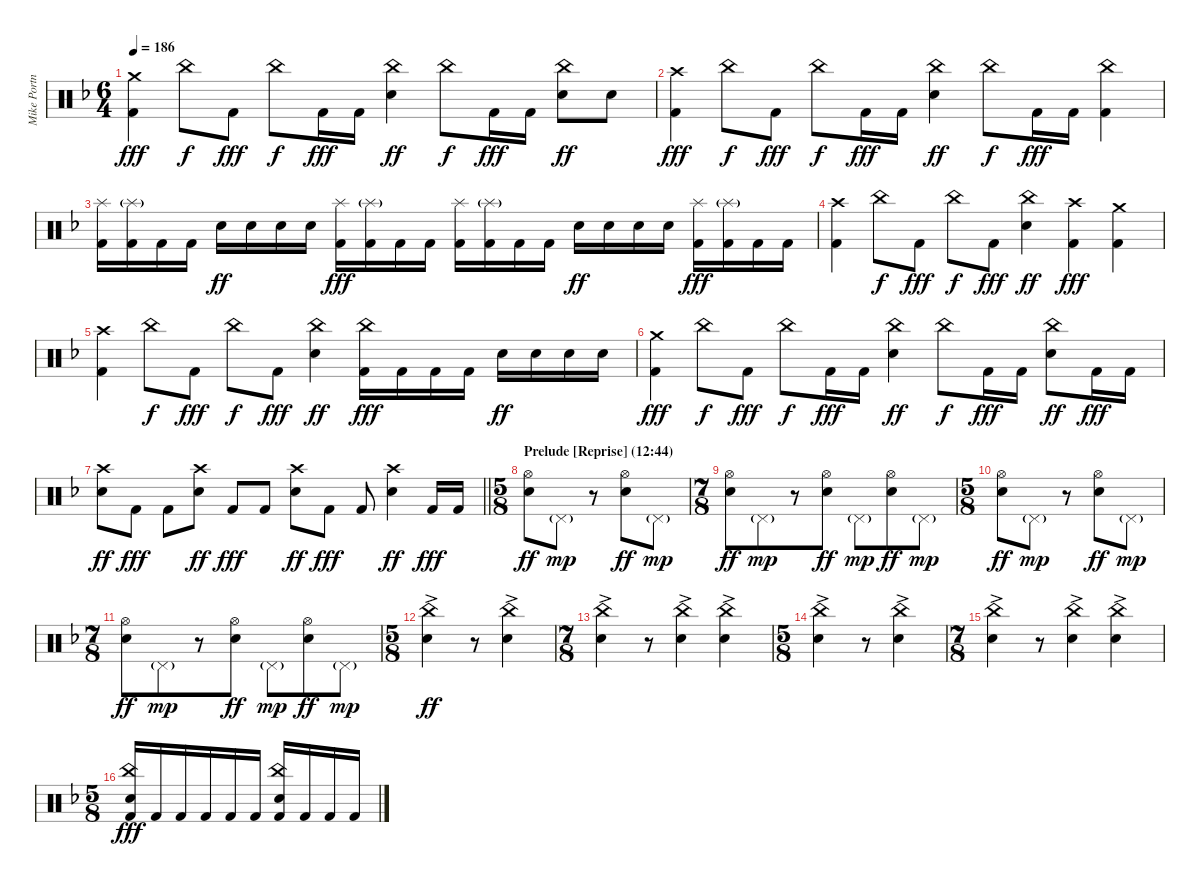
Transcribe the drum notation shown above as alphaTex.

\track ("Mike Portnoy Drums" "Mike Portn") {instrument percussion}
\staff {score}
\articulation defaults
\ts (6 4)
\tempo 186
\clef neutral
\ks dminor
("Crash medium (hit)" "Kick (hit) 2").4{dy fff} "China (hit)".8{dy f} "Kick (hit) 2".8{dy fff} "China (hit)".8{dy f} "Kick (hit) 2".16{dy fff} "Kick (hit) 2".16 ("China (hit)" "Electric Snare (hit)").4{dy ff} "China (hit)".8{dy f} "Kick (hit) 2".16{dy fff} "Kick (hit) 2".16 ("China (hit)" "Electric Snare (hit)").8{dy ff} "Electric Snare (hit)".8 |
("Crash high (hit)" "Kick (hit) 2").4{dy fff} "China (hit)".8{dy f} "Kick (hit) 2".8{dy fff} "China (hit)".8{dy f} "Kick (hit) 2".16{dy fff} "Kick (hit) 2".16 ("China (hit)" "Electric Snare (hit)").4{dy ff} "China (hit)".8{dy f} "Kick (hit) 2".16{dy fff} "Kick (hit) 2".16 ("China (hit)" "Kick (hit) 2").4 |
("Splash (hit)" "Kick (hit) 2").16 ("Splash (hit)"{g} "Kick (hit) 2").16 "Kick (hit) 2".16 "Kick (hit) 2".16 "Electric Snare (hit)".16{dy ff} "Electric Snare (hit)".16 "Electric Snare (hit)".16 "Electric Snare (hit)".16 ("Splash (hit)" "Kick (hit) 2").16{dy fff} ("Splash (hit)"{g} "Kick (hit) 2").16 "Kick (hit) 2".16 "Kick (hit) 2".16 ("Splash (hit)" "Kick (hit) 2").16 ("Splash (hit)"{g} "Kick (hit) 2").16 "Kick (hit) 2".16 "Kick (hit) 2".16 "Electric Snare (hit)".16{dy ff} "Electric Snare (hit)".16 "Electric Snare (hit)".16 "Electric Snare (hit)".16 ("Splash (hit)" "Kick (hit) 2").16{dy fff} ("Splash (hit)"{g} "Kick (hit) 2").16 "Kick (hit) 2".16 "Kick (hit) 2".16 |
("Crash high (hit)" "Kick (hit) 2").4 "China (hit)".8{dy f} "Kick (hit) 2".8{dy fff} "China (hit)".8{dy f} "Kick (hit) 2".8{dy fff} ("China (hit)" "Electric Snare (hit)").4{dy ff} ("Crash high (hit)" "Kick (hit) 2").4{dy fff} ("Crash medium (hit)" "Kick (hit) 2").4 |
("Crash high (hit)" "Kick (hit) 2").4 "China (hit)".8{dy f} "Kick (hit) 2".8{dy fff} "China (hit)".8{dy f} "Kick (hit) 2".8{dy fff} ("China (hit)" "Electric Snare (hit)").4{dy ff} ("China (hit)" "Kick (hit) 2").16{dy fff} "Kick (hit) 2".16 "Kick (hit) 2".16 "Kick (hit) 2".16 "Electric Snare (hit)".16{dy ff} "Electric Snare (hit)".16 "Electric Snare (hit)".16 "Electric Snare (hit)".16 |
("Crash medium (hit)" "Kick (hit) 2").4{dy fff} "China (hit)".8{dy f} "Kick (hit) 2".8{dy fff} "China (hit)".8{dy f} "Kick (hit) 2".16{dy fff} "Kick (hit) 2".16 ("China (hit)" "Electric Snare (hit)").4{dy ff} "China (hit)".8{dy f} "Kick (hit) 2".16{dy fff} "Kick (hit) 2".16 ("China (hit)" "Electric Snare (hit)").8{dy ff} "Kick (hit) 2".16{dy fff} "Kick (hit) 2".16 |
\barLineRight lightlight
("Crash high (hit)" "Electric Snare (hit)").8{dy ff} "Kick (hit) 2".8{dy fff} "Kick (hit) 2".8 ("Crash high (hit)" "Electric Snare (hit)").8{dy ff} "Kick (hit) 2".8{dy fff} "Kick (hit) 2".8 ("Crash high (hit)" "Electric Snare (hit)").8{dy ff} "Kick (hit) 2".8{dy fff} "Kick (hit) 2".8 ("Crash high (hit)" "Electric Snare (hit)").4{dy ff} "Kick (hit) 2".16{dy fff} "Kick (hit) 2".16 |
\ts (5 8)
\section ("" "Prelude [Reprise] (12:44)")
("Hi-Hat (open)" "Electric Snare (hit)").8{dy ff} "Pedal Hi-Hat (hit)"{g}.8{dy mp} r.8 ("Hi-Hat (open)" "Electric Snare (hit)").8{dy ff} "Pedal Hi-Hat (hit)"{g}.8{dy mp} |
\ts (7 8)
("Hi-Hat (open)" "Electric Snare (hit)").8{dy ff} "Pedal Hi-Hat (hit)"{g}.8{dy mp} r.8 ("Hi-Hat (open)" "Electric Snare (hit)").8{dy ff} "Pedal Hi-Hat (hit)"{g}.8{dy mp} ("Hi-Hat (open)" "Electric Snare (hit)").8{dy ff} "Pedal Hi-Hat (hit)"{g}.8{dy mp} |
\ts (5 8)
("Hi-Hat (open)" "Electric Snare (hit)").8{dy ff} "Pedal Hi-Hat (hit)"{g}.8{dy mp} r.8 ("Hi-Hat (open)" "Electric Snare (hit)").8{dy ff} "Pedal Hi-Hat (hit)"{g}.8{dy mp} |
\ts (7 8)
("Hi-Hat (open)" "Electric Snare (hit)").8{dy ff} "Pedal Hi-Hat (hit)"{g}.8{dy mp} r.8 ("Hi-Hat (open)" "Electric Snare (hit)").8{dy ff} "Pedal Hi-Hat (hit)"{g}.8{dy mp} ("Hi-Hat (open)" "Electric Snare (hit)").8{dy ff} "Pedal Hi-Hat (hit)"{g}.8{dy mp} |
\ts (5 8)
("China (hit)"{ac} "Electric Snare (hit)").4{dy ff} r.8 ("China (hit)"{ac} "Electric Snare (hit)").4 |
\ts (7 8)
("China (hit)"{ac} "Electric Snare (hit)").4 r.8 ("China (hit)"{ac} "Electric Snare (hit)").4 ("China (hit)"{ac} "Electric Snare (hit)").4 |
\ts (5 8)
("China (hit)"{ac} "Electric Snare (hit)").4 r.8 ("China (hit)"{ac} "Electric Snare (hit)").4 |
\ts (7 8)
("China (hit)"{ac} "Electric Snare (hit)").4 r.8 ("China (hit)"{ac} "Electric Snare (hit)").4 ("China (hit)"{ac} "Electric Snare (hit)").4 |
\ts (5 8)
("China (hit)" "Electric Snare (hit)" "Kick (hit) 2").16{dy fff} "Kick (hit) 2".16 "Kick (hit) 2".16 "Kick (hit) 2".16 "Kick (hit) 2".16 "Kick (hit) 2".16 ("China (hit)" "Electric Snare (hit)" "Kick (hit) 2").16 "Kick (hit) 2".16 "Kick (hit) 2".16 "Kick (hit) 2".16
